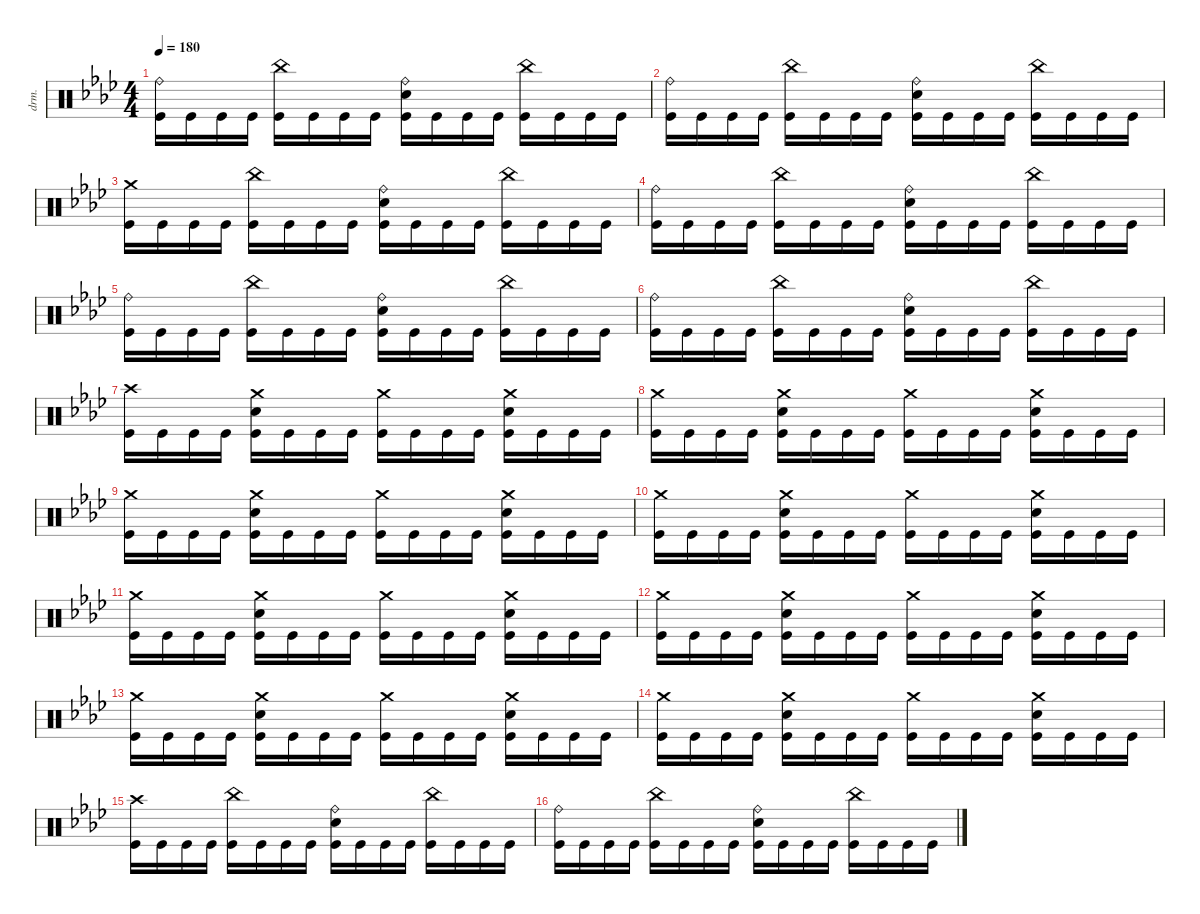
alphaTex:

\defaultSystemsLayout 4
\hideDynamics
\bracketExtendMode nobrackets
\otherSystemsTrackNameOrientation horizontal
\track ("Percussion" "drm.") {instrument percussion}
\staff {score}
\articulation defaults
\ts (4 4)
\tempo 180
\clef neutral
\ks fminor
("Ride (bell)"{acc forcenatural} "Kick (hit)"{acc forcenatural}).16{dy f beam Down} "Kick (hit)"{acc forcenatural}.16{beam Down} "Kick (hit)"{acc forcenatural}.16{beam Down} "Kick (hit)"{acc forcenatural}.16{beam Down} ("China (hit)"{acc forcenatural} "Kick (hit)"{acc forcenatural}).16{beam Down} "Kick (hit)"{acc forcenatural}.16{beam Down} "Kick (hit)"{acc forcenatural}.16{beam Down} "Kick (hit)"{acc forcenatural}.16{beam Down} ("Ride (bell)"{acc forcenatural} "Snare (hit) 2"{acc forcenatural} "Kick (hit)"{acc forcenatural}).16{beam Down} "Kick (hit)"{acc forcenatural}.16{beam Down} "Kick (hit)"{acc forcenatural}.16{beam Down} "Kick (hit)"{acc forcenatural}.16{beam Down} ("China (hit)"{acc forcenatural} "Kick (hit)"{acc forcenatural}).16{beam Down} "Kick (hit)"{acc forcenatural}.16{beam Down} "Kick (hit)"{acc forcenatural}.16{beam Down} "Kick (hit)"{acc forcenatural}.16{beam Down} |
("Ride (bell)"{acc forcenatural} "Kick (hit)"{acc forcenatural}).16{beam Down} "Kick (hit)"{acc forcenatural}.16{beam Down} "Kick (hit)"{acc forcenatural}.16{beam Down} "Kick (hit)"{acc forcenatural}.16{beam Down} ("China (hit)"{acc forcenatural} "Kick (hit)"{acc forcenatural}).16{beam Down} "Kick (hit)"{acc forcenatural}.16{beam Down} "Kick (hit)"{acc forcenatural}.16{beam Down} "Kick (hit)"{acc forcenatural}.16{beam Down} ("Ride (bell)"{acc forcenatural} "Snare (hit) 2"{acc forcenatural} "Kick (hit)"{acc forcenatural}).16{beam Down} "Kick (hit)"{acc forcenatural}.16{beam Down} "Kick (hit)"{acc forcenatural}.16{beam Down} "Kick (hit)"{acc forcenatural}.16{beam Down} ("China (hit)"{acc forcenatural} "Kick (hit)"{acc forcenatural}).16{beam Down} "Kick (hit)"{acc forcenatural}.16{beam Down} "Kick (hit)"{acc forcenatural}.16{beam Down} "Kick (hit)"{acc forcenatural}.16{beam Down} |
("Crash medium (hit)"{acc forcenatural} "Kick (hit)"{acc forcenatural}).16{beam Down} "Kick (hit)"{acc forcenatural}.16{beam Down} "Kick (hit)"{acc forcenatural}.16{beam Down} "Kick (hit)"{acc forcenatural}.16{beam Down} ("China (hit)"{acc forcenatural} "Kick (hit)"{acc forcenatural}).16{beam Down} "Kick (hit)"{acc forcenatural}.16{beam Down} "Kick (hit)"{acc forcenatural}.16{beam Down} "Kick (hit)"{acc forcenatural}.16{beam Down} ("Ride (bell)"{acc forcenatural} "Snare (hit) 2"{acc forcenatural} "Kick (hit)"{acc forcenatural}).16{beam Down} "Kick (hit)"{acc forcenatural}.16{beam Down} "Kick (hit)"{acc forcenatural}.16{beam Down} "Kick (hit)"{acc forcenatural}.16{beam Down} ("China (hit)"{acc forcenatural} "Kick (hit)"{acc forcenatural}).16{beam Down} "Kick (hit)"{acc forcenatural}.16{beam Down} "Kick (hit)"{acc forcenatural}.16{beam Down} "Kick (hit)"{acc forcenatural}.16{beam Down} |
("Ride (bell)"{acc forcenatural} "Kick (hit)"{acc forcenatural}).16{beam Down} "Kick (hit)"{acc forcenatural}.16{beam Down} "Kick (hit)"{acc forcenatural}.16{beam Down} "Kick (hit)"{acc forcenatural}.16{beam Down} ("China (hit)"{acc forcenatural} "Kick (hit)"{acc forcenatural}).16{beam Down} "Kick (hit)"{acc forcenatural}.16{beam Down} "Kick (hit)"{acc forcenatural}.16{beam Down} "Kick (hit)"{acc forcenatural}.16{beam Down} ("Ride (bell)"{acc forcenatural} "Snare (hit) 2"{acc forcenatural} "Kick (hit)"{acc forcenatural}).16{beam Down} "Kick (hit)"{acc forcenatural}.16{beam Down} "Kick (hit)"{acc forcenatural}.16{beam Down} "Kick (hit)"{acc forcenatural}.16{beam Down} ("China (hit)"{acc forcenatural} "Kick (hit)"{acc forcenatural}).16{beam Down} "Kick (hit)"{acc forcenatural}.16{beam Down} "Kick (hit)"{acc forcenatural}.16{beam Down} "Kick (hit)"{acc forcenatural}.16{beam Down} |
("Ride (bell)"{acc forcenatural} "Kick (hit)"{acc forcenatural}).16{beam Down} "Kick (hit)"{acc forcenatural}.16{beam Down} "Kick (hit)"{acc forcenatural}.16{beam Down} "Kick (hit)"{acc forcenatural}.16{beam Down} ("China (hit)"{acc forcenatural} "Kick (hit)"{acc forcenatural}).16{beam Down} "Kick (hit)"{acc forcenatural}.16{beam Down} "Kick (hit)"{acc forcenatural}.16{beam Down} "Kick (hit)"{acc forcenatural}.16{beam Down} ("Ride (bell)"{acc forcenatural} "Snare (hit) 2"{acc forcenatural} "Kick (hit)"{acc forcenatural}).16{beam Down} "Kick (hit)"{acc forcenatural}.16{beam Down} "Kick (hit)"{acc forcenatural}.16{beam Down} "Kick (hit)"{acc forcenatural}.16{beam Down} ("China (hit)"{acc forcenatural} "Kick (hit)"{acc forcenatural}).16{beam Down} "Kick (hit)"{acc forcenatural}.16{beam Down} "Kick (hit)"{acc forcenatural}.16{beam Down} "Kick (hit)"{acc forcenatural}.16{beam Down} |
("Ride (bell)"{acc forcenatural} "Kick (hit)"{acc forcenatural}).16{beam Down} "Kick (hit)"{acc forcenatural}.16{beam Down} "Kick (hit)"{acc forcenatural}.16{beam Down} "Kick (hit)"{acc forcenatural}.16{beam Down} ("China (hit)"{acc forcenatural} "Kick (hit)"{acc forcenatural}).16{beam Down} "Kick (hit)"{acc forcenatural}.16{beam Down} "Kick (hit)"{acc forcenatural}.16{beam Down} "Kick (hit)"{acc forcenatural}.16{beam Down} ("Ride (bell)"{acc forcenatural} "Snare (hit) 2"{acc forcenatural} "Kick (hit)"{acc forcenatural}).16{beam Down} "Kick (hit)"{acc forcenatural}.16{beam Down} "Kick (hit)"{acc forcenatural}.16{beam Down} "Kick (hit)"{acc forcenatural}.16{beam Down} ("China (hit)"{acc forcenatural} "Kick (hit)"{acc forcenatural}).16{beam Down} "Kick (hit)"{acc forcenatural}.16{beam Down} "Kick (hit)"{acc forcenatural}.16{beam Down} "Kick (hit)"{acc forcenatural}.16{beam Down} |
("Crash high (hit)"{acc forcenatural} "Kick (hit)"{acc forcenatural}).16{beam Down} "Kick (hit)"{acc forcenatural}.16{beam Down} "Kick (hit)"{acc forcenatural}.16{beam Down} "Kick (hit)"{acc forcenatural}.16{beam Down} ("Crash medium (hit)"{acc forcenatural} "Snare (hit) 2"{acc forcenatural} "Kick (hit)"{acc forcenatural}).16{beam Down} "Kick (hit)"{acc forcenatural}.16{beam Down} "Kick (hit)"{acc forcenatural}.16{beam Down} "Kick (hit)"{acc forcenatural}.16{beam Down} ("Crash medium (hit)"{acc forcenatural} "Kick (hit)"{acc forcenatural}).16{beam Down} "Kick (hit)"{acc forcenatural}.16{beam Down} "Kick (hit)"{acc forcenatural}.16{beam Down} "Kick (hit)"{acc forcenatural}.16{beam Down} ("Crash medium (hit)"{acc forcenatural} "Snare (hit) 2"{acc forcenatural} "Kick (hit)"{acc forcenatural}).16{beam Down} "Kick (hit)"{acc forcenatural}.16{beam Down} "Kick (hit)"{acc forcenatural}.16{beam Down} "Kick (hit)"{acc forcenatural}.16{beam Down} |
("Crash medium (hit)"{acc forcenatural} "Kick (hit)"{acc forcenatural}).16{beam Down} "Kick (hit)"{acc forcenatural}.16{beam Down} "Kick (hit)"{acc forcenatural}.16{beam Down} "Kick (hit)"{acc forcenatural}.16{beam Down} ("Crash medium (hit)"{acc forcenatural} "Snare (hit) 2"{acc forcenatural} "Kick (hit)"{acc forcenatural}).16{beam Down} "Kick (hit)"{acc forcenatural}.16{beam Down} "Kick (hit)"{acc forcenatural}.16{beam Down} "Kick (hit)"{acc forcenatural}.16{beam Down} ("Crash medium (hit)"{acc forcenatural} "Kick (hit)"{acc forcenatural}).16{beam Down} "Kick (hit)"{acc forcenatural}.16{beam Down} "Kick (hit)"{acc forcenatural}.16{beam Down} "Kick (hit)"{acc forcenatural}.16{beam Down} ("Crash medium (hit)"{acc forcenatural} "Snare (hit) 2"{acc forcenatural} "Kick (hit)"{acc forcenatural}).16{beam Down} "Kick (hit)"{acc forcenatural}.16{beam Down} "Kick (hit)"{acc forcenatural}.16{beam Down} "Kick (hit)"{acc forcenatural}.16{beam Down} |
("Crash medium (hit)"{acc forcenatural} "Kick (hit)"{acc forcenatural}).16{beam Down} "Kick (hit)"{acc forcenatural}.16{beam Down} "Kick (hit)"{acc forcenatural}.16{beam Down} "Kick (hit)"{acc forcenatural}.16{beam Down} ("Crash medium (hit)"{acc forcenatural} "Snare (hit) 2"{acc forcenatural} "Kick (hit)"{acc forcenatural}).16{beam Down} "Kick (hit)"{acc forcenatural}.16{beam Down} "Kick (hit)"{acc forcenatural}.16{beam Down} "Kick (hit)"{acc forcenatural}.16{beam Down} ("Crash medium (hit)"{acc forcenatural} "Kick (hit)"{acc forcenatural}).16{beam Down} "Kick (hit)"{acc forcenatural}.16{beam Down} "Kick (hit)"{acc forcenatural}.16{beam Down} "Kick (hit)"{acc forcenatural}.16{beam Down} ("Crash medium (hit)"{acc forcenatural} "Snare (hit) 2"{acc forcenatural} "Kick (hit)"{acc forcenatural}).16{beam Down} "Kick (hit)"{acc forcenatural}.16{beam Down} "Kick (hit)"{acc forcenatural}.16{beam Down} "Kick (hit)"{acc forcenatural}.16{beam Down} |
("Crash medium (hit)"{acc forcenatural} "Kick (hit)"{acc forcenatural}).16{beam Down} "Kick (hit)"{acc forcenatural}.16{beam Down} "Kick (hit)"{acc forcenatural}.16{beam Down} "Kick (hit)"{acc forcenatural}.16{beam Down} ("Crash medium (hit)"{acc forcenatural} "Snare (hit) 2"{acc forcenatural} "Kick (hit)"{acc forcenatural}).16{beam Down} "Kick (hit)"{acc forcenatural}.16{beam Down} "Kick (hit)"{acc forcenatural}.16{beam Down} "Kick (hit)"{acc forcenatural}.16{beam Down} ("Crash medium (hit)"{acc forcenatural} "Kick (hit)"{acc forcenatural}).16{beam Down} "Kick (hit)"{acc forcenatural}.16{beam Down} "Kick (hit)"{acc forcenatural}.16{beam Down} "Kick (hit)"{acc forcenatural}.16{beam Down} ("Crash medium (hit)"{acc forcenatural} "Snare (hit) 2"{acc forcenatural} "Kick (hit)"{acc forcenatural}).16{beam Down} "Kick (hit)"{acc forcenatural}.16{beam Down} "Kick (hit)"{acc forcenatural}.16{beam Down} "Kick (hit)"{acc forcenatural}.16{beam Down} |
("Crash medium (hit)"{acc forcenatural} "Kick (hit)"{acc forcenatural}).16{beam Down} "Kick (hit)"{acc forcenatural}.16{beam Down} "Kick (hit)"{acc forcenatural}.16{beam Down} "Kick (hit)"{acc forcenatural}.16{beam Down} ("Crash medium (hit)"{acc forcenatural} "Snare (hit) 2"{acc forcenatural} "Kick (hit)"{acc forcenatural}).16{beam Down} "Kick (hit)"{acc forcenatural}.16{beam Down} "Kick (hit)"{acc forcenatural}.16{beam Down} "Kick (hit)"{acc forcenatural}.16{beam Down} ("Crash medium (hit)"{acc forcenatural} "Kick (hit)"{acc forcenatural}).16{beam Down} "Kick (hit)"{acc forcenatural}.16{beam Down} "Kick (hit)"{acc forcenatural}.16{beam Down} "Kick (hit)"{acc forcenatural}.16{beam Down} ("Crash medium (hit)"{acc forcenatural} "Snare (hit) 2"{acc forcenatural} "Kick (hit)"{acc forcenatural}).16{beam Down} "Kick (hit)"{acc forcenatural}.16{beam Down} "Kick (hit)"{acc forcenatural}.16{beam Down} "Kick (hit)"{acc forcenatural}.16{beam Down} |
("Crash medium (hit)"{acc forcenatural} "Kick (hit)"{acc forcenatural}).16{beam Down} "Kick (hit)"{acc forcenatural}.16{beam Down} "Kick (hit)"{acc forcenatural}.16{beam Down} "Kick (hit)"{acc forcenatural}.16{beam Down} ("Crash medium (hit)"{acc forcenatural} "Snare (hit) 2"{acc forcenatural} "Kick (hit)"{acc forcenatural}).16{beam Down} "Kick (hit)"{acc forcenatural}.16{beam Down} "Kick (hit)"{acc forcenatural}.16{beam Down} "Kick (hit)"{acc forcenatural}.16{beam Down} ("Crash medium (hit)"{acc forcenatural} "Kick (hit)"{acc forcenatural}).16{beam Down} "Kick (hit)"{acc forcenatural}.16{beam Down} "Kick (hit)"{acc forcenatural}.16{beam Down} "Kick (hit)"{acc forcenatural}.16{beam Down} ("Crash medium (hit)"{acc forcenatural} "Snare (hit) 2"{acc forcenatural} "Kick (hit)"{acc forcenatural}).16{beam Down} "Kick (hit)"{acc forcenatural}.16{beam Down} "Kick (hit)"{acc forcenatural}.16{beam Down} "Kick (hit)"{acc forcenatural}.16{beam Down} |
("Crash medium (hit)"{acc forcenatural} "Kick (hit)"{acc forcenatural}).16{beam Down} "Kick (hit)"{acc forcenatural}.16{beam Down} "Kick (hit)"{acc forcenatural}.16{beam Down} "Kick (hit)"{acc forcenatural}.16{beam Down} ("Crash medium (hit)"{acc forcenatural} "Snare (hit) 2"{acc forcenatural} "Kick (hit)"{acc forcenatural}).16{beam Down} "Kick (hit)"{acc forcenatural}.16{beam Down} "Kick (hit)"{acc forcenatural}.16{beam Down} "Kick (hit)"{acc forcenatural}.16{beam Down} ("Crash medium (hit)"{acc forcenatural} "Kick (hit)"{acc forcenatural}).16{beam Down} "Kick (hit)"{acc forcenatural}.16{beam Down} "Kick (hit)"{acc forcenatural}.16{beam Down} "Kick (hit)"{acc forcenatural}.16{beam Down} ("Crash medium (hit)"{acc forcenatural} "Snare (hit) 2"{acc forcenatural} "Kick (hit)"{acc forcenatural}).16{beam Down} "Kick (hit)"{acc forcenatural}.16{beam Down} "Kick (hit)"{acc forcenatural}.16{beam Down} "Kick (hit)"{acc forcenatural}.16{beam Down} |
("Crash medium (hit)"{acc forcenatural} "Kick (hit)"{acc forcenatural}).16{beam Down} "Kick (hit)"{acc forcenatural}.16{beam Down} "Kick (hit)"{acc forcenatural}.16{beam Down} "Kick (hit)"{acc forcenatural}.16{beam Down} ("Crash medium (hit)"{acc forcenatural} "Snare (hit) 2"{acc forcenatural} "Kick (hit)"{acc forcenatural}).16{beam Down} "Kick (hit)"{acc forcenatural}.16{beam Down} "Kick (hit)"{acc forcenatural}.16{beam Down} "Kick (hit)"{acc forcenatural}.16{beam Down} ("Crash medium (hit)"{acc forcenatural} "Kick (hit)"{acc forcenatural}).16{beam Down} "Kick (hit)"{acc forcenatural}.16{beam Down} "Kick (hit)"{acc forcenatural}.16{beam Down} "Kick (hit)"{acc forcenatural}.16{beam Down} ("Crash medium (hit)"{acc forcenatural} "Snare (hit) 2"{acc forcenatural} "Kick (hit)"{acc forcenatural}).16{beam Down} "Kick (hit)"{acc forcenatural}.16{beam Down} "Kick (hit)"{acc forcenatural}.16{beam Down} "Kick (hit)"{acc forcenatural}.16{beam Down} |
("Crash high (hit)"{acc forcenatural} "Kick (hit)"{acc forcenatural}).16{beam Down} "Kick (hit)"{acc forcenatural}.16{beam Down} "Kick (hit)"{acc forcenatural}.16{beam Down} "Kick (hit)"{acc forcenatural}.16{beam Down} ("China (hit)"{acc forcenatural} "Kick (hit)"{acc forcenatural}).16{beam Down} "Kick (hit)"{acc forcenatural}.16{beam Down} "Kick (hit)"{acc forcenatural}.16{beam Down} "Kick (hit)"{acc forcenatural}.16{beam Down} ("Ride (bell)"{acc forcenatural} "Snare (hit) 2"{acc forcenatural} "Kick (hit)"{acc forcenatural}).16{beam Down} "Kick (hit)"{acc forcenatural}.16{beam Down} "Kick (hit)"{acc forcenatural}.16{beam Down} "Kick (hit)"{acc forcenatural}.16{beam Down} ("China (hit)"{acc forcenatural} "Kick (hit)"{acc forcenatural}).16{beam Down} "Kick (hit)"{acc forcenatural}.16{beam Down} "Kick (hit)"{acc forcenatural}.16{beam Down} "Kick (hit)"{acc forcenatural}.16{beam Down} |
("Ride (bell)"{acc forcenatural} "Kick (hit)"{acc forcenatural}).16{beam Down} "Kick (hit)"{acc forcenatural}.16{beam Down} "Kick (hit)"{acc forcenatural}.16{beam Down} "Kick (hit)"{acc forcenatural}.16{beam Down} ("China (hit)"{acc forcenatural} "Kick (hit)"{acc forcenatural}).16{beam Down} "Kick (hit)"{acc forcenatural}.16{beam Down} "Kick (hit)"{acc forcenatural}.16{beam Down} "Kick (hit)"{acc forcenatural}.16{beam Down} ("Ride (bell)"{acc forcenatural} "Snare (hit) 2"{acc forcenatural} "Kick (hit)"{acc forcenatural}).16{beam Down} "Kick (hit)"{acc forcenatural}.16{beam Down} "Kick (hit)"{acc forcenatural}.16{beam Down} "Kick (hit)"{acc forcenatural}.16{beam Down} ("China (hit)"{acc forcenatural} "Kick (hit)"{acc forcenatural}).16{beam Down} "Kick (hit)"{acc forcenatural}.16{beam Down} "Kick (hit)"{acc forcenatural}.16{beam Down} "Kick (hit)"{acc forcenatural}.16{beam Down}
